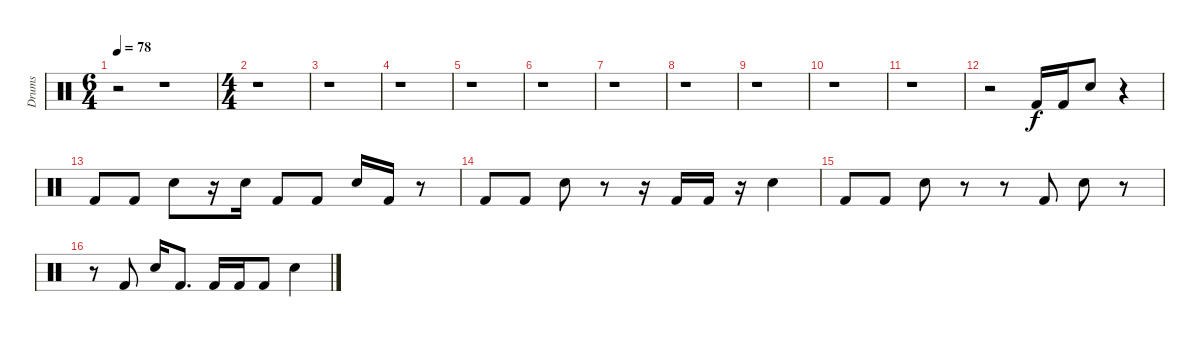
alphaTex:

\track ("Drums" "Drums") {instrument percussion}
\staff {score}
\articulation defaults
\ts (6 4)
\tempo 78
\clef neutral
\ks c
r.2{dy f} r.1 |
\ts (4 4)
r.1 |
r.1 |
r.1 |
r.1 |
r.1 |
r.1 |
r.1 |
r.1 |
r.1 |
r.1 |
r.2 "Kick (hit) 2".16 "Kick (hit) 2".16 "Electric Snare (hit)".8 r.4 |
"Kick (hit) 2".8 "Kick (hit) 2".8 "Electric Snare (hit)".8 r.16 "Electric Snare (hit)".16 "Kick (hit) 2".8 "Kick (hit) 2".8 "Electric Snare (hit)".16 "Kick (hit) 2".16 r.8 |
"Kick (hit) 2".8 "Kick (hit) 2".8 "Electric Snare (hit)".8 r.8 r.16 "Kick (hit) 2".16 "Kick (hit) 2".16 r.16 "Electric Snare (hit)".4 |
"Kick (hit) 2".8 "Kick (hit) 2".8 "Electric Snare (hit)".8 r.8 r.8 "Kick (hit) 2".8 "Electric Snare (hit)".8 r.8 |
r.8 "Kick (hit) 2".8 "Electric Snare (hit)".16 "Kick (hit) 2".8{d} "Kick (hit) 2".16 "Kick (hit) 2".16 "Kick (hit) 2".8 "Electric Snare (hit)".4
